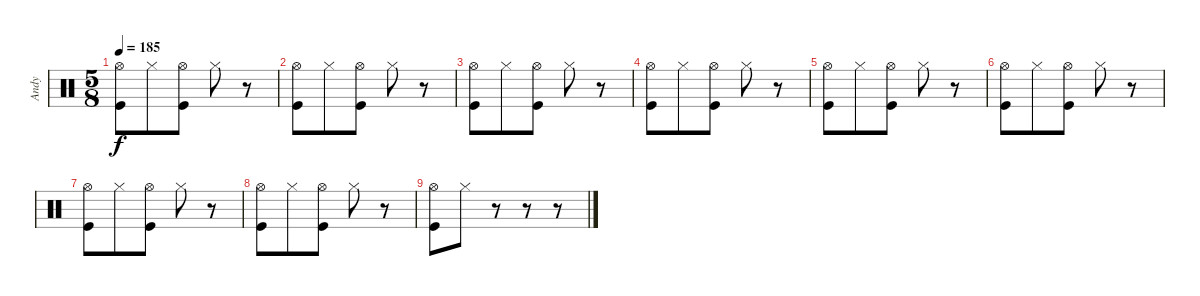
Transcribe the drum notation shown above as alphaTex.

\track ("Andy" "Andy") {instrument percussion}
\staff {score}
\articulation defaults
\ts (5 8)
\tempo 185
\clef neutral
\ks c
("Kick (hit)" "Hi-Hat (open)").8{dy f} "Hi-Hat (closed)".8 ("Kick (hit)" "Hi-Hat (open)").8 "Hi-Hat (closed)".8 r.8 |
("Kick (hit)" "Hi-Hat (open)").8 "Hi-Hat (closed)".8 ("Kick (hit)" "Hi-Hat (open)").8 "Hi-Hat (closed)".8 r.8 |
("Kick (hit)" "Hi-Hat (open)").8 "Hi-Hat (closed)".8 ("Kick (hit)" "Hi-Hat (open)").8 "Hi-Hat (closed)".8 r.8 |
("Kick (hit)" "Hi-Hat (open)").8 "Hi-Hat (closed)".8 ("Kick (hit)" "Hi-Hat (open)").8 "Hi-Hat (closed)".8 r.8 |
("Kick (hit)" "Hi-Hat (open)").8 "Hi-Hat (closed)".8 ("Kick (hit)" "Hi-Hat (open)").8 "Hi-Hat (closed)".8 r.8 |
("Kick (hit)" "Hi-Hat (open)").8 "Hi-Hat (closed)".8 ("Kick (hit)" "Hi-Hat (open)").8 "Hi-Hat (closed)".8 r.8 |
("Kick (hit)" "Hi-Hat (open)").8 "Hi-Hat (closed)".8 ("Kick (hit)" "Hi-Hat (open)").8 "Hi-Hat (closed)".8 r.8 |
("Kick (hit)" "Hi-Hat (open)").8 "Hi-Hat (closed)".8 ("Kick (hit)" "Hi-Hat (open)").8 "Hi-Hat (closed)".8 r.8 |
("Hi-Hat (open)" "Kick (hit)").8 "Hi-Hat (closed)".8 r.8 r.8 r.8
